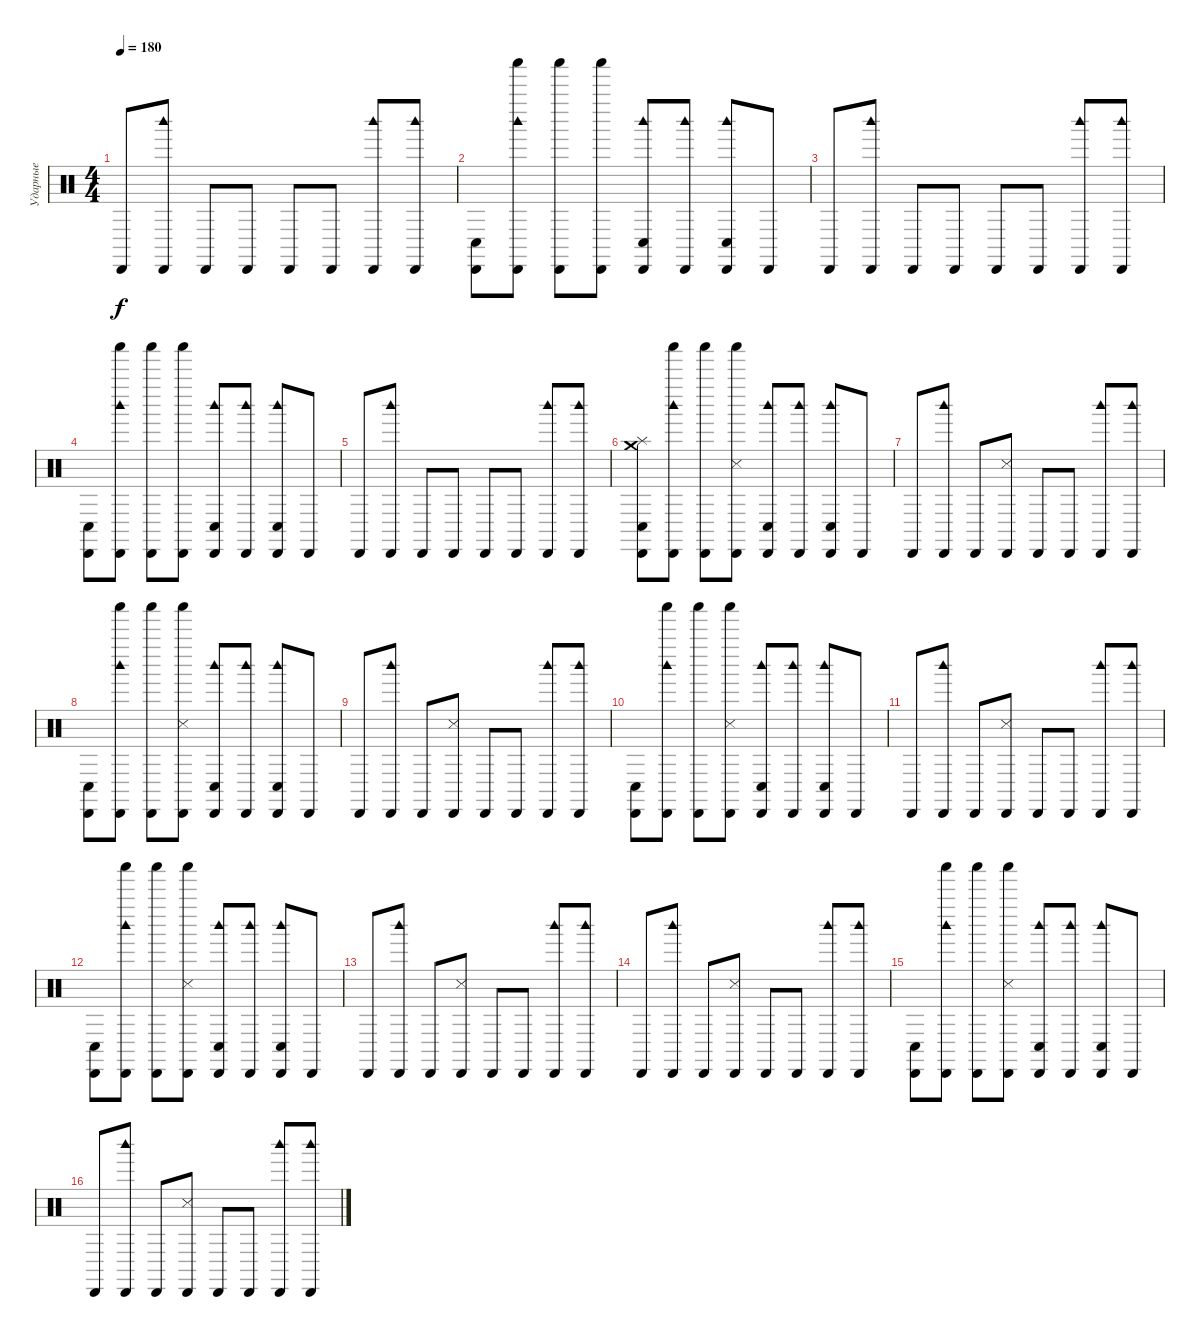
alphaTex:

\track ("Ударные" "Ударные") {instrument percussion}
\staff {score}
\articulation defaults
\ts (4 4)
\tempo 180
\clef neutral
\ks c "Cabasa (hit)".8{dy f}
("Woodblock high (hit)" "Cabasa (hit)").8 "Cabasa (hit)".8 "Cabasa (hit)".8 "Cabasa (hit)".8 "Cabasa (hit)".8 ("Woodblock high (hit)" "Cabasa (hit)").8 ("Woodblock high (hit)" "Cabasa (hit)").8 |
("Cabasa (hit)" "Conga low (hit)").8 ("Woodblock high (hit)" "Shaker (hit)" "Cabasa (hit)").8 ("Shaker (hit)" "Cabasa (hit)").8 ("Shaker (hit)" "Cabasa (hit)").8 ("Woodblock high (hit)" "Cabasa (hit)" "Conga low (hit)").8 ("Woodblock high (hit)" "Cabasa (hit)").8 ("Woodblock high (hit)" "Cabasa (hit)" "Conga low (hit)").8 "Cabasa (hit)".8 |
"Cabasa (hit)".8 ("Woodblock high (hit)" "Cabasa (hit)").8 "Cabasa (hit)".8 "Cabasa (hit)".8 "Cabasa (hit)".8 "Cabasa (hit)".8 ("Woodblock high (hit)" "Cabasa (hit)").8 ("Woodblock high (hit)" "Cabasa (hit)").8 |
("Cabasa (hit)" "Conga low (hit)").8 ("Woodblock high (hit)" "Shaker (hit)" "Cabasa (hit)").8 ("Shaker (hit)" "Cabasa (hit)").8 ("Shaker (hit)" "Cabasa (hit)").8 ("Woodblock high (hit)" "Cabasa (hit)" "Conga low (hit)").8 ("Woodblock high (hit)" "Cabasa (hit)").8 ("Woodblock high (hit)" "Cabasa (hit)" "Conga low (hit)").8 "Cabasa (hit)".8 |
"Cabasa (hit)".8 ("Woodblock high (hit)" "Cabasa (hit)").8 "Cabasa (hit)".8 "Cabasa (hit)".8 "Cabasa (hit)".8 "Cabasa (hit)".8 ("Woodblock high (hit)" "Cabasa (hit)").8 ("Woodblock high (hit)" "Cabasa (hit)").8 |
("Crash medium (hit)" "Cabasa (hit)" "Splash (hit)" "Conga low (hit)").8 ("Woodblock high (hit)" "Shaker (hit)" "Cabasa (hit)").8 ("Shaker (hit)" "Cabasa (hit)").8 ("Shaker (hit)" "Cabasa (hit)" "Snare (side stick) 3").8 ("Woodblock high (hit)" "Cabasa (hit)" "Conga low (hit)").8 ("Woodblock high (hit)" "Cabasa (hit)").8 ("Woodblock high (hit)" "Cabasa (hit)" "Conga low (hit)").8 "Cabasa (hit)".8 |
"Cabasa (hit)".8 ("Woodblock high (hit)" "Cabasa (hit)").8 "Cabasa (hit)".8 ("Cabasa (hit)" "Snare (side stick) 3").8 "Cabasa (hit)".8 "Cabasa (hit)".8 ("Woodblock high (hit)" "Cabasa (hit)").8 ("Woodblock high (hit)" "Cabasa (hit)").8 |
("Cabasa (hit)" "Conga low (hit)").8 ("Woodblock high (hit)" "Shaker (hit)" "Cabasa (hit)").8 ("Shaker (hit)" "Cabasa (hit)").8 ("Shaker (hit)" "Cabasa (hit)" "Snare (side stick) 3").8 ("Woodblock high (hit)" "Cabasa (hit)" "Conga low (hit)").8 ("Woodblock high (hit)" "Cabasa (hit)").8 ("Woodblock high (hit)" "Cabasa (hit)" "Conga low (hit)").8 "Cabasa (hit)".8 |
"Cabasa (hit)".8 ("Woodblock high (hit)" "Cabasa (hit)").8 "Cabasa (hit)".8 ("Cabasa (hit)" "Snare (side stick) 3").8 "Cabasa (hit)".8 "Cabasa (hit)".8 ("Woodblock high (hit)" "Cabasa (hit)").8 ("Woodblock high (hit)" "Cabasa (hit)").8 |
("Cabasa (hit)" "Conga low (hit)").8 ("Woodblock high (hit)" "Shaker (hit)" "Cabasa (hit)").8 ("Shaker (hit)" "Cabasa (hit)").8 ("Shaker (hit)" "Cabasa (hit)" "Snare (side stick) 3").8 ("Woodblock high (hit)" "Cabasa (hit)" "Conga low (hit)").8 ("Woodblock high (hit)" "Cabasa (hit)").8 ("Woodblock high (hit)" "Cabasa (hit)" "Conga low (hit)").8 "Cabasa (hit)".8 |
"Cabasa (hit)".8 ("Woodblock high (hit)" "Cabasa (hit)").8 "Cabasa (hit)".8 ("Cabasa (hit)" "Snare (side stick) 3").8 "Cabasa (hit)".8 "Cabasa (hit)".8 ("Woodblock high (hit)" "Cabasa (hit)").8 ("Woodblock high (hit)" "Cabasa (hit)").8 |
("Cabasa (hit)" "Conga low (hit)").8 ("Woodblock high (hit)" "Shaker (hit)" "Cabasa (hit)").8 ("Shaker (hit)" "Cabasa (hit)").8 ("Shaker (hit)" "Cabasa (hit)" "Snare (side stick) 3").8 ("Woodblock high (hit)" "Cabasa (hit)" "Conga low (hit)").8 ("Woodblock high (hit)" "Cabasa (hit)").8 ("Woodblock high (hit)" "Cabasa (hit)" "Conga low (hit)").8 "Cabasa (hit)".8 |
"Cabasa (hit)".8 ("Woodblock high (hit)" "Cabasa (hit)").8 "Cabasa (hit)".8 ("Cabasa (hit)" "Snare (side stick) 3").8 "Cabasa (hit)".8 "Cabasa (hit)".8 ("Woodblock high (hit)" "Cabasa (hit)").8 ("Woodblock high (hit)" "Cabasa (hit)").8 |
"Cabasa (hit)".8 ("Woodblock high (hit)" "Cabasa (hit)").8 "Cabasa (hit)".8 ("Cabasa (hit)" "Snare (side stick) 3").8 "Cabasa (hit)".8 "Cabasa (hit)".8 ("Woodblock high (hit)" "Cabasa (hit)").8 ("Woodblock high (hit)" "Cabasa (hit)").8 |
("Cabasa (hit)" "Conga low (hit)").8 ("Woodblock high (hit)" "Shaker (hit)" "Cabasa (hit)").8 ("Shaker (hit)" "Cabasa (hit)").8 ("Shaker (hit)" "Cabasa (hit)" "Snare (side stick) 3").8 ("Woodblock high (hit)" "Cabasa (hit)" "Conga low (hit)").8 ("Woodblock high (hit)" "Cabasa (hit)").8 ("Woodblock high (hit)" "Cabasa (hit)" "Conga low (hit)").8 "Cabasa (hit)".8 |
"Cabasa (hit)".8 ("Woodblock high (hit)" "Cabasa (hit)").8 "Cabasa (hit)".8 ("Cabasa (hit)" "Snare (side stick) 3").8 "Cabasa (hit)".8 "Cabasa (hit)".8 ("Woodblock high (hit)" "Cabasa (hit)").8 ("Woodblock high (hit)" "Cabasa (hit)").8
